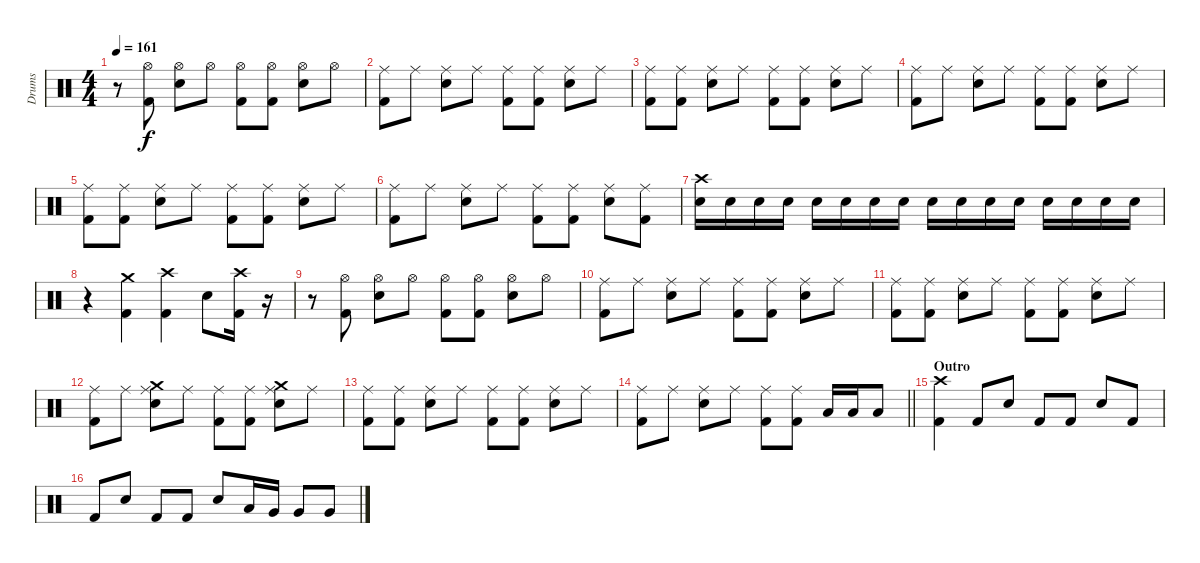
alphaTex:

\track ("Drums" "Drums") {instrument percussion}
\staff {score}
\articulation defaults
\ts (4 4)
\tempo 161
\clef neutral
\ks c
r.8{dy f} ("Hi-Hat (open)" "Kick (hit) 2").8 ("Hi-Hat (open)" "Electric Snare (hit)").8 "Hi-Hat (open)".8 ("Hi-Hat (open)" "Kick (hit) 2").8 ("Hi-Hat (open)" "Kick (hit) 2").8 ("Hi-Hat (open)" "Electric Snare (hit)").8 "Hi-Hat (open)".8 |
("Ride (middle)" "Kick (hit) 2").8 "Ride (middle)".8 ("Ride (middle)" "Electric Snare (hit)").8 "Ride (middle)".8 ("Ride (middle)" "Kick (hit) 2").8 ("Ride (middle)" "Kick (hit) 2").8 ("Ride (middle)" "Electric Snare (hit)").8 "Ride (middle)".8 |
("Ride (middle)" "Kick (hit) 2").8 ("Ride (middle)" "Kick (hit) 2").8 ("Ride (middle)" "Electric Snare (hit)").8 "Ride (middle)".8 ("Ride (middle)" "Kick (hit) 2").8 ("Ride (middle)" "Kick (hit) 2").8 ("Ride (middle)" "Electric Snare (hit)").8 "Ride (middle)".8 |
("Ride (middle)" "Kick (hit) 2").8 "Ride (middle)".8 ("Ride (middle)" "Electric Snare (hit)").8 "Ride (middle)".8 ("Ride (middle)" "Kick (hit) 2").8 ("Ride (middle)" "Kick (hit) 2").8 ("Ride (middle)" "Electric Snare (hit)").8 "Ride (middle)".8 |
("Ride (middle)" "Kick (hit) 2").8 ("Ride (middle)" "Kick (hit) 2").8 ("Ride (middle)" "Electric Snare (hit)").8 "Ride (middle)".8 ("Ride (middle)" "Kick (hit) 2").8 ("Ride (middle)" "Kick (hit) 2").8 ("Ride (middle)" "Electric Snare (hit)").8 "Ride (middle)".8 |
("Ride (middle)" "Kick (hit) 2").8 "Ride (middle)".8 ("Ride (middle)" "Electric Snare (hit)").8 "Ride (middle)".8 ("Ride (middle)" "Kick (hit) 2").8 ("Ride (middle)" "Kick (hit) 2").8 ("Ride (middle)" "Electric Snare (hit)").8 ("Ride (middle)" "Kick (hit) 2").8 |
("Crash high (hit)" "Electric Snare (hit)").16 "Electric Snare (hit)".16 "Electric Snare (hit)".16 "Electric Snare (hit)".16 "Electric Snare (hit)".16 "Electric Snare (hit)".16 "Electric Snare (hit)".16 "Electric Snare (hit)".16 "Electric Snare (hit)".16 "Electric Snare (hit)".16 "Electric Snare (hit)".16 "Electric Snare (hit)".16 "Electric Snare (hit)".16 "Electric Snare (hit)".16 "Electric Snare (hit)".16 "Electric Snare (hit)".16 |
r.4 ("Crash medium (hit)" "Kick (hit) 2").4 ("Crash high (hit)" "Kick (hit) 2").4 "Electric Snare (hit)".8 ("Crash high (hit)" "Kick (hit) 2").16 r.16 |
r.8 ("Hi-Hat (open)" "Kick (hit) 2").8 ("Hi-Hat (open)" "Electric Snare (hit)").8 "Hi-Hat (open)".8 ("Hi-Hat (open)" "Kick (hit) 2").8 ("Hi-Hat (open)" "Kick (hit) 2").8 ("Hi-Hat (open)" "Electric Snare (hit)").8 "Hi-Hat (open)".8 |
("Ride (middle)" "Kick (hit) 2").8 "Ride (middle)".8 ("Ride (middle)" "Electric Snare (hit)").8 "Ride (middle)".8 ("Ride (middle)" "Kick (hit) 2").8 ("Ride (middle)" "Kick (hit) 2").8 ("Ride (middle)" "Electric Snare (hit)").8 "Ride (middle)".8 |
("Ride (middle)" "Kick (hit) 2").8 ("Ride (middle)" "Kick (hit) 2").8 ("Ride (middle)" "Electric Snare (hit)").8 "Ride (middle)".8 ("Ride (middle)" "Kick (hit) 2").8 ("Ride (middle)" "Kick (hit) 2").8 ("Ride (middle)" "Electric Snare (hit)").8 "Ride (middle)".8 |
("Ride (middle)" "Kick (hit) 2").8 "Ride (middle)".8 ("Crash medium (hit)" "Ride (middle)" "Electric Snare (hit)").8 "Ride (middle)".8 ("Ride (middle)" "Kick (hit) 2").8 ("Ride (middle)" "Kick (hit) 2").8 ("Crash medium (hit)" "Ride (middle)" "Electric Snare (hit)").8 "Ride (middle)".8 |
("Ride (middle)" "Kick (hit) 2").8 ("Ride (middle)" "Kick (hit) 2").8 ("Ride (middle)" "Electric Snare (hit)").8 "Ride (middle)".8 ("Ride (middle)" "Kick (hit) 2").8 ("Ride (middle)" "Kick (hit) 2").8 ("Ride (middle)" "Electric Snare (hit)").8 "Ride (middle)".8 |
\barLineRight lightlight
("Ride (middle)" "Kick (hit) 2").8 "Ride (middle)".8 ("Ride (middle)" "Electric Snare (hit)").8 "Ride (middle)".8 ("Ride (middle)" "Kick (hit) 2").8 ("Ride (middle)" "Kick (hit) 2").8 "Low Tom (hit)".16 "Low Tom (hit)".16 "Low Tom (hit)".8 |
\section ("" "Outro")
("Crash high (hit)" "Kick (hit) 2").4 "Kick (hit) 2".8 "Electric Snare (hit)".8 "Kick (hit) 2".8 "Kick (hit) 2".8 "Electric Snare (hit)".8 "Kick (hit) 2".8 |
"Kick (hit) 2".8 "Electric Snare (hit)".8 "Kick (hit) 2".8 "Kick (hit) 2".8 "Electric Snare (hit)".8 "Low Tom (hit)".16 "Very Low Tom (hit)".16 "Very Low Tom (hit)".8 "Very Low Tom (hit)".8
